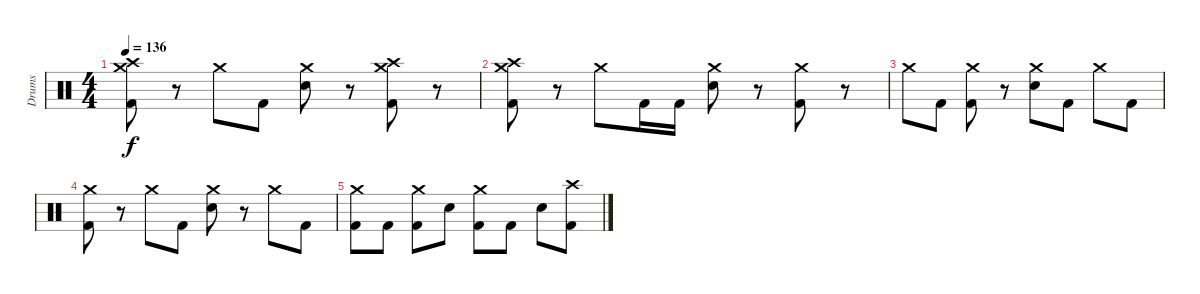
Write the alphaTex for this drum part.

\track ("Drums" "Drums") {instrument percussion}
\staff {score}
\articulation defaults
\ts (4 4)
\tempo 136
\clef neutral
\ks c
("Crash medium (hit)" "Crash high (hit)" "Kick (hit) 2").8{dy f} r.8 "Crash medium (hit)".8 "Kick (hit) 2".8 ("Crash medium (hit)" "Electric Snare (hit)").8 r.8 ("Crash medium (hit)" "Crash high (hit)" "Kick (hit) 2").8 r.8 |
("Crash medium (hit)" "Crash high (hit)" "Kick (hit) 2").8 r.8 "Crash medium (hit)".8 "Kick (hit) 2".16 "Kick (hit) 2".16 ("Crash medium (hit)" "Electric Snare (hit)").8 r.8 ("Crash medium (hit)" "Kick (hit) 2").8 r.8 |
"Crash medium (hit)".8 "Kick (hit) 2".8 ("Crash medium (hit)" "Kick (hit) 2").8 r.8 ("Crash medium (hit)" "Electric Snare (hit)").8 "Kick (hit) 2".8 "Crash medium (hit)".8 "Kick (hit) 2".8 |
("Crash medium (hit)" "Kick (hit) 2").8 r.8 "Crash medium (hit)".8 "Kick (hit) 2".8 ("Crash medium (hit)" "Electric Snare (hit)").8 r.8 "Crash medium (hit)".8 "Kick (hit) 2".8 |
("Crash medium (hit)" "Kick (hit) 2").8 "Kick (hit) 2".8 ("Crash medium (hit)" "Kick (hit) 2").8 "Electric Snare (hit)".8 ("Crash medium (hit)" "Kick (hit) 2").8 "Kick (hit) 2".8 "Electric Snare (hit)".8 ("Crash high (hit)" "Kick (hit) 2").8
